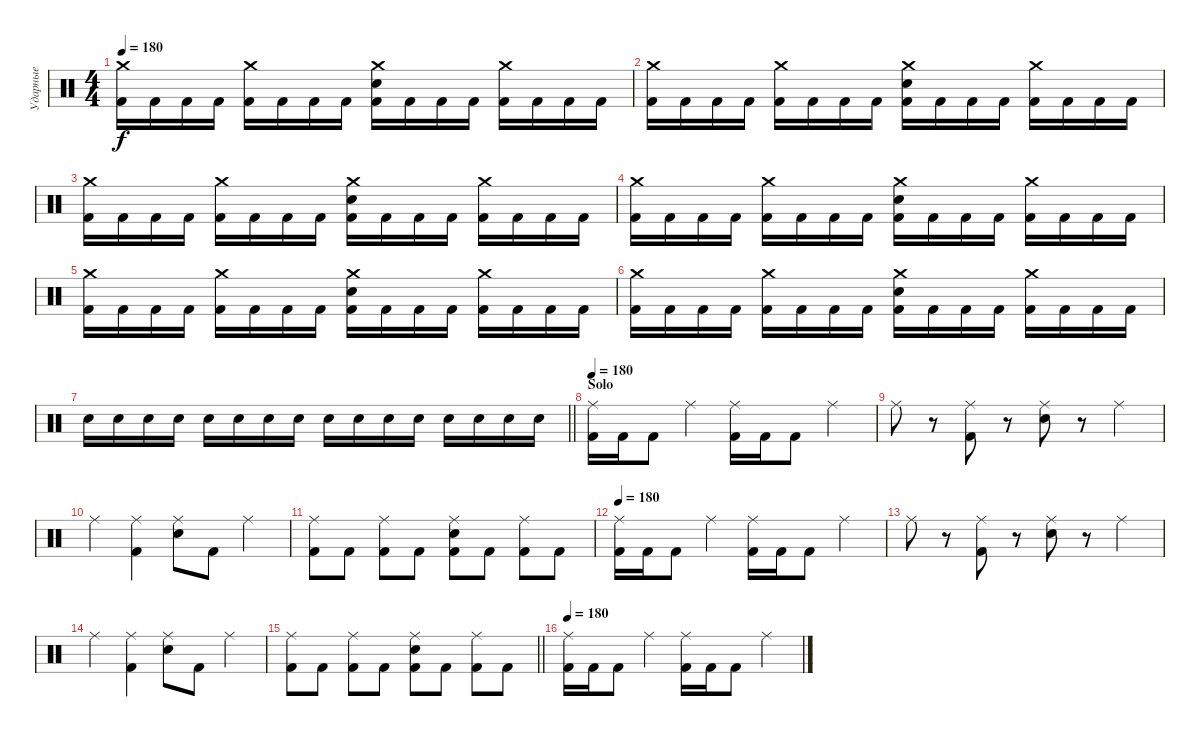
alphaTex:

\track ("Ударные" "Ударные") {instrument percussion}
\staff {score}
\articulation defaults
\ts (4 4)
\tempo 180
\clef neutral
\ks c
("Crash medium (hit)" "Kick (hit) 2").16{dy f} "Kick (hit) 2".16 "Kick (hit) 2".16 "Kick (hit) 2".16 ("Crash medium (hit)" "Kick (hit) 2").16 "Kick (hit) 2".16 "Kick (hit) 2".16 "Kick (hit) 2".16 ("Crash medium (hit)" "Electric Snare (hit)" "Kick (hit) 2").16 "Kick (hit) 2".16 "Kick (hit) 2".16 "Kick (hit) 2".16 ("Crash medium (hit)" "Kick (hit) 2").16 "Kick (hit) 2".16 "Kick (hit) 2".16 "Kick (hit) 2".16 |
("Crash medium (hit)" "Kick (hit) 2").16 "Kick (hit) 2".16 "Kick (hit) 2".16 "Kick (hit) 2".16 ("Crash medium (hit)" "Kick (hit) 2").16 "Kick (hit) 2".16 "Kick (hit) 2".16 "Kick (hit) 2".16 ("Crash medium (hit)" "Electric Snare (hit)" "Kick (hit) 2").16 "Kick (hit) 2".16 "Kick (hit) 2".16 "Kick (hit) 2".16 ("Crash medium (hit)" "Kick (hit) 2").16 "Kick (hit) 2".16 "Kick (hit) 2".16 "Kick (hit) 2".16 |
("Crash medium (hit)" "Kick (hit) 2").16 "Kick (hit) 2".16 "Kick (hit) 2".16 "Kick (hit) 2".16 ("Crash medium (hit)" "Kick (hit) 2").16 "Kick (hit) 2".16 "Kick (hit) 2".16 "Kick (hit) 2".16 ("Crash medium (hit)" "Electric Snare (hit)" "Kick (hit) 2").16 "Kick (hit) 2".16 "Kick (hit) 2".16 "Kick (hit) 2".16 ("Crash medium (hit)" "Kick (hit) 2").16 "Kick (hit) 2".16 "Kick (hit) 2".16 "Kick (hit) 2".16 |
("Crash medium (hit)" "Kick (hit) 2").16 "Kick (hit) 2".16 "Kick (hit) 2".16 "Kick (hit) 2".16 ("Crash medium (hit)" "Kick (hit) 2").16 "Kick (hit) 2".16 "Kick (hit) 2".16 "Kick (hit) 2".16 ("Crash medium (hit)" "Electric Snare (hit)" "Kick (hit) 2").16 "Kick (hit) 2".16 "Kick (hit) 2".16 "Kick (hit) 2".16 ("Crash medium (hit)" "Kick (hit) 2").16 "Kick (hit) 2".16 "Kick (hit) 2".16 "Kick (hit) 2".16 |
("Crash medium (hit)" "Kick (hit) 2").16 "Kick (hit) 2".16 "Kick (hit) 2".16 "Kick (hit) 2".16 ("Crash medium (hit)" "Kick (hit) 2").16 "Kick (hit) 2".16 "Kick (hit) 2".16 "Kick (hit) 2".16 ("Crash medium (hit)" "Electric Snare (hit)" "Kick (hit) 2").16 "Kick (hit) 2".16 "Kick (hit) 2".16 "Kick (hit) 2".16 ("Crash medium (hit)" "Kick (hit) 2").16 "Kick (hit) 2".16 "Kick (hit) 2".16 "Kick (hit) 2".16 |
("Crash medium (hit)" "Kick (hit) 2").16 "Kick (hit) 2".16 "Kick (hit) 2".16 "Kick (hit) 2".16 ("Crash medium (hit)" "Kick (hit) 2").16 "Kick (hit) 2".16 "Kick (hit) 2".16 "Kick (hit) 2".16 ("Crash medium (hit)" "Electric Snare (hit)" "Kick (hit) 2").16 "Kick (hit) 2".16 "Kick (hit) 2".16 "Kick (hit) 2".16 ("Crash medium (hit)" "Kick (hit) 2").16 "Kick (hit) 2".16 "Kick (hit) 2".16 "Kick (hit) 2".16 |
\barLineRight lightlight "Electric Snare (hit)".16 "Electric Snare (hit)".16 "Electric Snare (hit)".16 "Electric Snare (hit)".16 "Electric Snare (hit)".16 "Electric Snare (hit)".16 "Electric Snare (hit)".16 "Electric Snare (hit)".16 "Electric Snare (hit)".16 "Electric Snare (hit)".16 "Electric Snare (hit)".16 "Electric Snare (hit)".16 "Electric Snare (hit)".16 "Electric Snare (hit)".16 "Electric Snare (hit)".16 "Electric Snare (hit)".16
|
\section ("" "Solo")
\tempo 180
("Ride (middle)" "Kick (hit) 2").16 "Kick (hit) 2".16 "Kick (hit) 2".8 "Ride (middle)".4 ("Ride (middle)" "Kick (hit) 2").16 "Kick (hit) 2".16 "Kick (hit) 2".8 "Ride (middle)".4 |
"Ride (middle)".8 r.8 ("Ride (middle)" "Kick (hit) 2").8 r.8 ("Ride (middle)" "Electric Snare (hit)").8 r.8 "Ride (middle)".4 |
"Ride (middle)".4 ("Ride (middle)" "Kick (hit) 2").4 ("Ride (middle)" "Electric Snare (hit)").8 "Kick (hit) 2".8 "Ride (middle)".4 |
("Ride (middle)" "Kick (hit) 2").8 "Kick (hit) 2".8 ("Ride (middle)" "Kick (hit) 2").8 "Kick (hit) 2".8 ("Ride (middle)" "Electric Snare (hit)" "Kick (hit) 2").8 "Kick (hit) 2".8 ("Ride (middle)" "Kick (hit) 2").8 "Kick (hit) 2".8 |
\tempo 180
("Ride (middle)" "Kick (hit) 2").16 "Kick (hit) 2".16 "Kick (hit) 2".8 "Ride (middle)".4 ("Ride (middle)" "Kick (hit) 2").16 "Kick (hit) 2".16 "Kick (hit) 2".8 "Ride (middle)".4 |
"Ride (middle)".8 r.8 ("Ride (middle)" "Kick (hit) 2").8 r.8 ("Ride (middle)" "Electric Snare (hit)").8 r.8 "Ride (middle)".4 |
"Ride (middle)".4 ("Ride (middle)" "Kick (hit) 2").4 ("Ride (middle)" "Electric Snare (hit)").8 "Kick (hit) 2".8 "Ride (middle)".4 |
\barLineRight lightlight
("Ride (middle)" "Kick (hit) 2").8 "Kick (hit) 2".8 ("Ride (middle)" "Kick (hit) 2").8 "Kick (hit) 2".8 ("Ride (middle)" "Electric Snare (hit)" "Kick (hit) 2").8 "Kick (hit) 2".8 ("Ride (middle)" "Kick (hit) 2").8 "Kick (hit) 2".8 |
\tempo 180
("Ride (middle)" "Kick (hit) 2").16 "Kick (hit) 2".16 "Kick (hit) 2".8 "Ride (middle)".4 ("Ride (middle)" "Kick (hit) 2").16 "Kick (hit) 2".16 "Kick (hit) 2".8 "Ride (middle)".4
